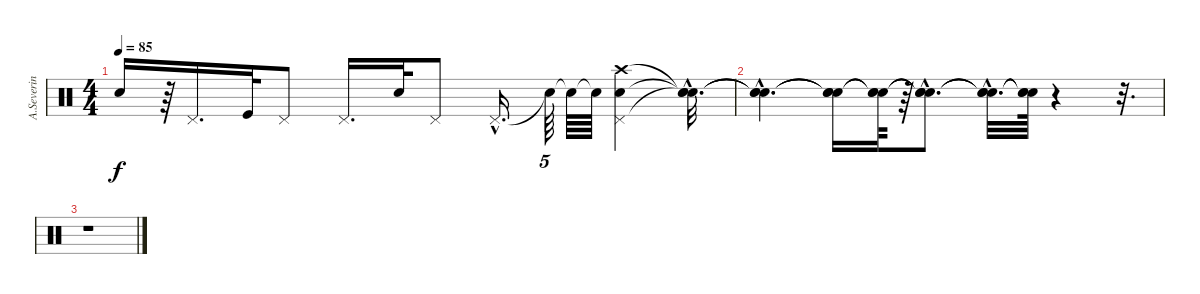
\track ("A.Severin        Drums                  " "A.Severin ") {instrument percussion}
\staff {score}
\articulation defaults
\ts (4 4)
\tempo 85
\clef neutral
\ks c "Snare (hit)"{t}.16{dy f}
r.64 "Pedal Hi-Hat (hit)".16{d} "Kick (hit)".32 "Pedal Hi-Hat (hit)".8 "Pedal Hi-Hat (hit)".16{d} "Electric Snare (hit)".32 "Pedal Hi-Hat (hit)".8 "Pedal Hi-Hat (hit)"{hac}.16{d} "Snare (hit)"{t}.64{tu (5 4)} "Snare (hit)"{t}.64 "Snare (hit)"{t}.64 ("Electric Snare (hit)" "Pedal Hi-Hat (hit)" "Crash high (hit)").4 ("Snare (hit)"{hac t} "Snare (hit)"{hac t} "Snare (hit)"{hac t}).32{d} |
("Snare (hit)"{hac t} "Snare (hit)"{hac t} "Snare (hit)"{hac t}).4{d} ("Snare (hit)"{t} "Snare (hit)"{t} "Snare (hit)"{t}).16 ("Snare (hit)"{t} "Snare (hit)"{t} "Snare (hit)"{t}).64 r.64 ("Snare (hit)"{hac t} "Snare (hit)"{hac t} "Snare (hit)"{hac t}).8{d} ("Snare (hit)"{hac t} "Snare (hit)"{hac t} "Snare (hit)"{hac t}).32{d} ("Snare (hit)"{t} "Snare (hit)"{t} "Snare (hit)"{t}).64 r.4 r.32{d} |
r.1
